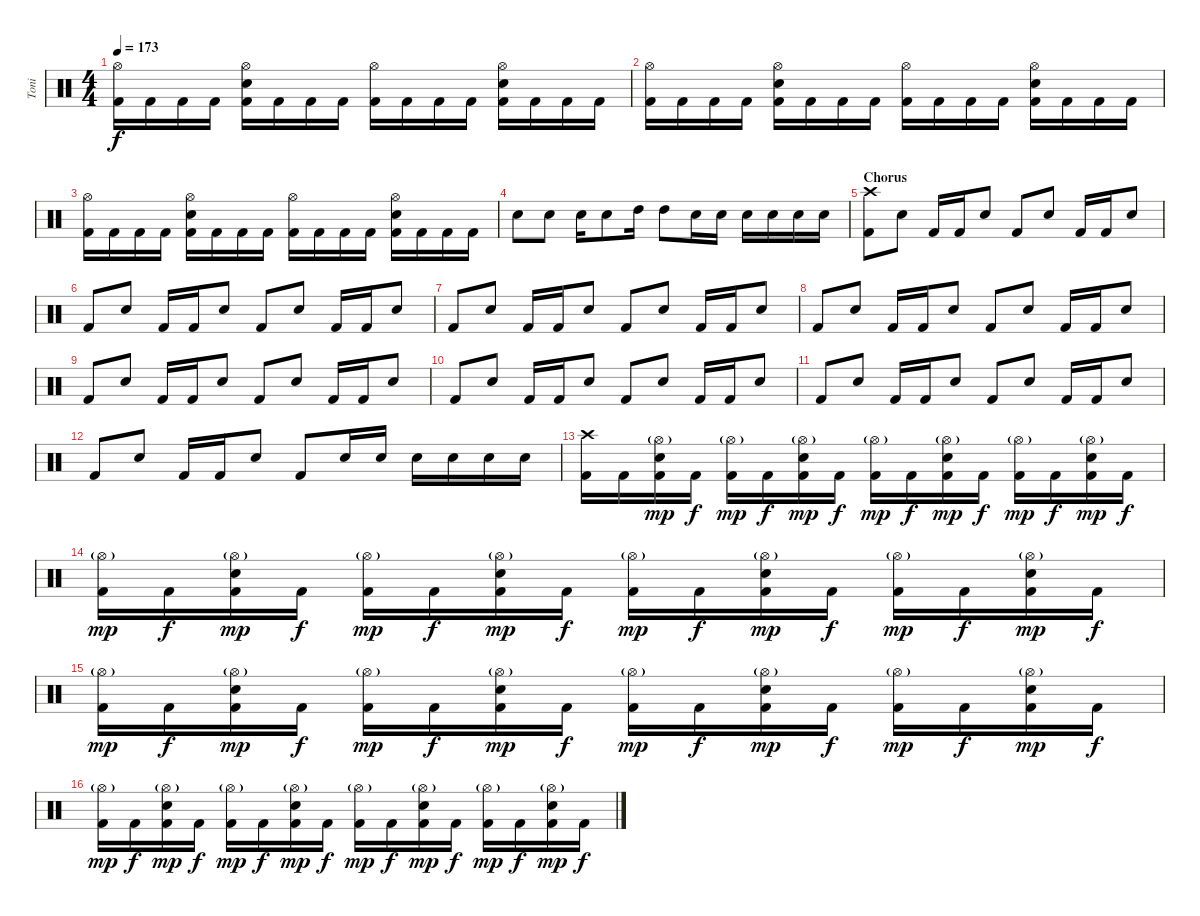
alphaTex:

\track ("Toni" "Toni") {instrument percussion}
\staff {score}
\articulation defaults
\ts (4 4)
\tempo 173
\clef neutral
\ks c
("Hi-Hat (open)" "Kick (hit) 2").16{dy f} "Kick (hit) 2".16 "Kick (hit) 2".16 "Kick (hit) 2".16 ("Hi-Hat (open)" "Electric Snare (hit)" "Kick (hit) 2").16 "Kick (hit) 2".16 "Kick (hit) 2".16 "Kick (hit) 2".16 ("Hi-Hat (open)" "Kick (hit) 2").16 "Kick (hit) 2".16 "Kick (hit) 2".16 "Kick (hit) 2".16 ("Hi-Hat (open)" "Electric Snare (hit)" "Kick (hit) 2").16 "Kick (hit) 2".16 "Kick (hit) 2".16 "Kick (hit) 2".16 |
("Hi-Hat (open)" "Kick (hit) 2").16 "Kick (hit) 2".16 "Kick (hit) 2".16 "Kick (hit) 2".16 ("Hi-Hat (open)" "Electric Snare (hit)" "Kick (hit) 2").16 "Kick (hit) 2".16 "Kick (hit) 2".16 "Kick (hit) 2".16 ("Hi-Hat (open)" "Kick (hit) 2").16 "Kick (hit) 2".16 "Kick (hit) 2".16 "Kick (hit) 2".16 ("Hi-Hat (open)" "Electric Snare (hit)" "Kick (hit) 2").16 "Kick (hit) 2".16 "Kick (hit) 2".16 "Kick (hit) 2".16 |
("Hi-Hat (open)" "Kick (hit) 2").16 "Kick (hit) 2".16 "Kick (hit) 2".16 "Kick (hit) 2".16 ("Hi-Hat (open)" "Electric Snare (hit)" "Kick (hit) 2").16 "Kick (hit) 2".16 "Kick (hit) 2".16 "Kick (hit) 2".16 ("Hi-Hat (open)" "Kick (hit) 2").16 "Kick (hit) 2".16 "Kick (hit) 2".16 "Kick (hit) 2".16 ("Hi-Hat (open)" "Electric Snare (hit)" "Kick (hit) 2").16 "Kick (hit) 2".16 "Kick (hit) 2".16 "Kick (hit) 2".16 |
"Electric Snare (hit)".8 "Electric Snare (hit)".8 "Electric Snare (hit)".16 "Electric Snare (hit)".8 "High Tom (hit)".16 "High Tom (hit)".8 "Electric Snare (hit)".16 "Electric Snare (hit)".16 "Electric Snare (hit)".16 "Electric Snare (hit)".16 "Electric Snare (hit)".16 "Electric Snare (hit)".16 |
\section ("" "Chorus")
("Crash high (hit)" "Kick (hit) 2").8 "Electric Snare (hit)".8 "Kick (hit) 2".16 "Kick (hit) 2".16 "Electric Snare (hit)".8 "Kick (hit) 2".8 "Electric Snare (hit)".8 "Kick (hit) 2".16 "Kick (hit) 2".16 "Electric Snare (hit)".8 |
"Kick (hit) 2".8 "Electric Snare (hit)".8 "Kick (hit) 2".16 "Kick (hit) 2".16 "Electric Snare (hit)".8 "Kick (hit) 2".8 "Electric Snare (hit)".8 "Kick (hit) 2".16 "Kick (hit) 2".16 "Electric Snare (hit)".8 |
"Kick (hit) 2".8 "Electric Snare (hit)".8 "Kick (hit) 2".16 "Kick (hit) 2".16 "Electric Snare (hit)".8 "Kick (hit) 2".8 "Electric Snare (hit)".8 "Kick (hit) 2".16 "Kick (hit) 2".16 "Electric Snare (hit)".8 |
"Kick (hit) 2".8 "Electric Snare (hit)".8 "Kick (hit) 2".16 "Kick (hit) 2".16 "Electric Snare (hit)".8 "Kick (hit) 2".8 "Electric Snare (hit)".8 "Kick (hit) 2".16 "Kick (hit) 2".16 "Electric Snare (hit)".8 |
"Kick (hit) 2".8 "Electric Snare (hit)".8 "Kick (hit) 2".16 "Kick (hit) 2".16 "Electric Snare (hit)".8 "Kick (hit) 2".8 "Electric Snare (hit)".8 "Kick (hit) 2".16 "Kick (hit) 2".16 "Electric Snare (hit)".8 |
"Kick (hit) 2".8 "Electric Snare (hit)".8 "Kick (hit) 2".16 "Kick (hit) 2".16 "Electric Snare (hit)".8 "Kick (hit) 2".8 "Electric Snare (hit)".8 "Kick (hit) 2".16 "Kick (hit) 2".16 "Electric Snare (hit)".8 |
"Kick (hit) 2".8 "Electric Snare (hit)".8 "Kick (hit) 2".16 "Kick (hit) 2".16 "Electric Snare (hit)".8 "Kick (hit) 2".8 "Electric Snare (hit)".8 "Kick (hit) 2".16 "Kick (hit) 2".16 "Electric Snare (hit)".8 |
"Kick (hit) 2".8 "Electric Snare (hit)".8 "Kick (hit) 2".16 "Kick (hit) 2".16 "Electric Snare (hit)".8 "Kick (hit) 2".8 "Electric Snare (hit)".16 "Electric Snare (hit)".16 "Electric Snare (hit)".16 "Electric Snare (hit)".16 "Electric Snare (hit)".16 "Electric Snare (hit)".16 |
("Crash high (hit)" "Kick (hit) 2").16 "Kick (hit) 2".16 ("Hi-Hat (open)"{g} "Electric Snare (hit)" "Kick (hit) 2").16{dy mp} "Kick (hit) 2".16{dy f} ("Hi-Hat (open)"{g} "Kick (hit) 2").16{dy mp} "Kick (hit) 2".16{dy f} ("Hi-Hat (open)"{g} "Electric Snare (hit)" "Kick (hit) 2").16{dy mp} "Kick (hit) 2".16{dy f} ("Hi-Hat (open)"{g} "Kick (hit) 2").16{dy mp} "Kick (hit) 2".16{dy f} ("Hi-Hat (open)"{g} "Electric Snare (hit)" "Kick (hit) 2").16{dy mp} "Kick (hit) 2".16{dy f} ("Hi-Hat (open)"{g} "Kick (hit) 2").16{dy mp} "Kick (hit) 2".16{dy f} ("Hi-Hat (open)"{g} "Electric Snare (hit)" "Kick (hit) 2").16{dy mp} "Kick (hit) 2".16{dy f} |
("Hi-Hat (open)"{g} "Kick (hit) 2").16{dy mp} "Kick (hit) 2".16{dy f} ("Hi-Hat (open)"{g} "Electric Snare (hit)" "Kick (hit) 2").16{dy mp} "Kick (hit) 2".16{dy f} ("Hi-Hat (open)"{g} "Kick (hit) 2").16{dy mp} "Kick (hit) 2".16{dy f} ("Hi-Hat (open)"{g} "Electric Snare (hit)" "Kick (hit) 2").16{dy mp} "Kick (hit) 2".16{dy f} ("Hi-Hat (open)"{g} "Kick (hit) 2").16{dy mp} "Kick (hit) 2".16{dy f} ("Hi-Hat (open)"{g} "Electric Snare (hit)" "Kick (hit) 2").16{dy mp} "Kick (hit) 2".16{dy f} ("Hi-Hat (open)"{g} "Kick (hit) 2").16{dy mp} "Kick (hit) 2".16{dy f} ("Hi-Hat (open)"{g} "Electric Snare (hit)" "Kick (hit) 2").16{dy mp} "Kick (hit) 2".16{dy f} |
("Hi-Hat (open)"{g} "Kick (hit) 2").16{dy mp} "Kick (hit) 2".16{dy f} ("Hi-Hat (open)"{g} "Electric Snare (hit)" "Kick (hit) 2").16{dy mp} "Kick (hit) 2".16{dy f} ("Hi-Hat (open)"{g} "Kick (hit) 2").16{dy mp} "Kick (hit) 2".16{dy f} ("Hi-Hat (open)"{g} "Electric Snare (hit)" "Kick (hit) 2").16{dy mp} "Kick (hit) 2".16{dy f} ("Hi-Hat (open)"{g} "Kick (hit) 2").16{dy mp} "Kick (hit) 2".16{dy f} ("Hi-Hat (open)"{g} "Electric Snare (hit)" "Kick (hit) 2").16{dy mp} "Kick (hit) 2".16{dy f} ("Hi-Hat (open)"{g} "Kick (hit) 2").16{dy mp} "Kick (hit) 2".16{dy f} ("Hi-Hat (open)"{g} "Electric Snare (hit)" "Kick (hit) 2").16{dy mp} "Kick (hit) 2".16{dy f} |
("Hi-Hat (open)"{g} "Kick (hit) 2").16{dy mp} "Kick (hit) 2".16{dy f} ("Hi-Hat (open)"{g} "Electric Snare (hit)" "Kick (hit) 2").16{dy mp} "Kick (hit) 2".16{dy f} ("Hi-Hat (open)"{g} "Kick (hit) 2").16{dy mp} "Kick (hit) 2".16{dy f} ("Hi-Hat (open)"{g} "Electric Snare (hit)" "Kick (hit) 2").16{dy mp} "Kick (hit) 2".16{dy f} ("Hi-Hat (open)"{g} "Kick (hit) 2").16{dy mp} "Kick (hit) 2".16{dy f} ("Hi-Hat (open)"{g} "Electric Snare (hit)" "Kick (hit) 2").16{dy mp} "Kick (hit) 2".16{dy f} ("Hi-Hat (open)"{g} "Kick (hit) 2").16{dy mp} "Kick (hit) 2".16{dy f} ("Hi-Hat (open)"{g} "Electric Snare (hit)" "Kick (hit) 2").16{dy mp} "Kick (hit) 2".16{dy f}
